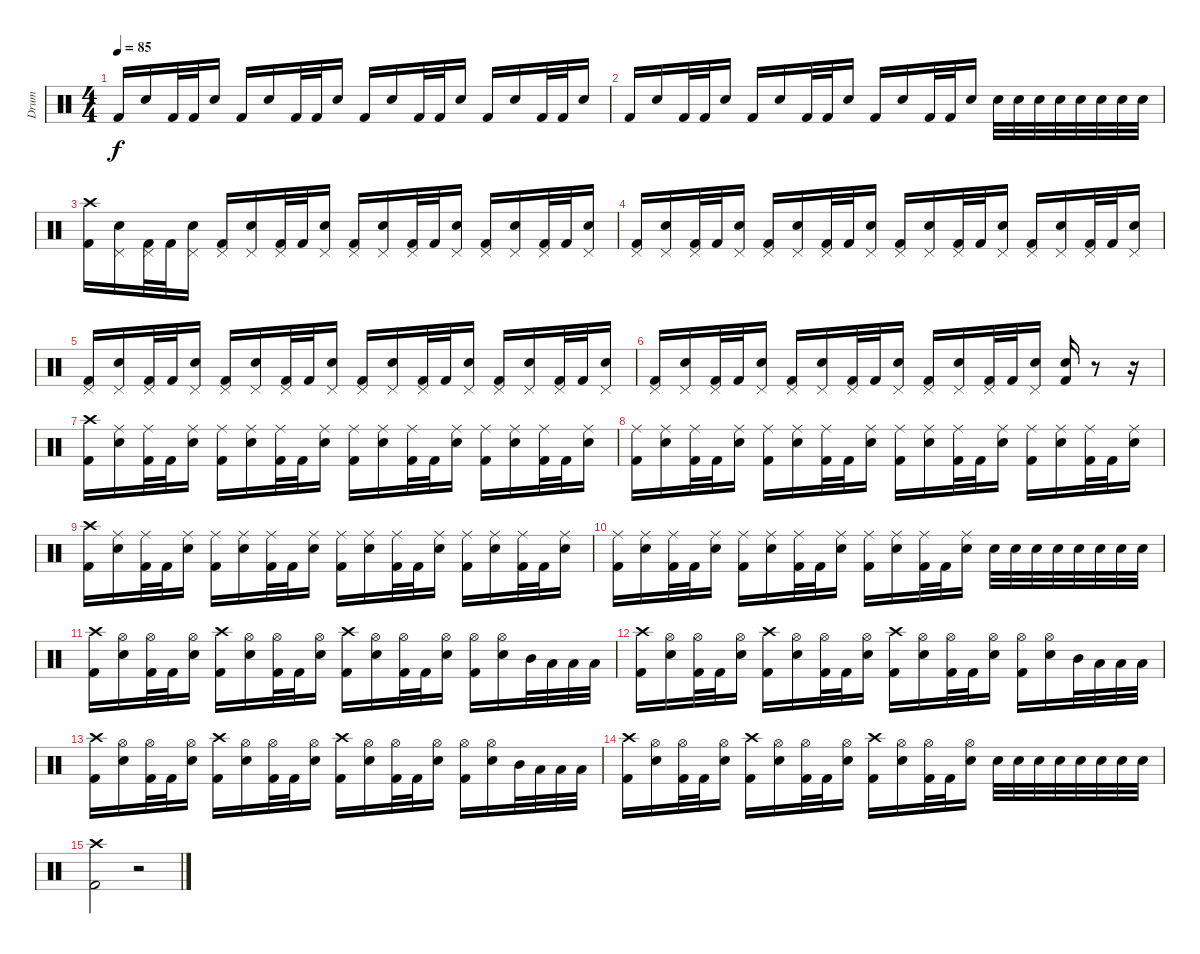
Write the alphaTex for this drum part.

\track ("Drum" "Drum") {instrument percussion}
\staff {score}
\articulation defaults
\ts (4 4)
\tempo 85
\clef neutral
\ks c "Kick (hit) 2".16{dy f} "Electric Snare (hit)".16 "Kick (hit) 2".32 "Kick (hit) 2".32 "Electric Snare (hit)".16 "Kick (hit) 2".16 "Electric Snare (hit)".16 "Kick (hit) 2".32 "Kick (hit) 2".32 "Electric Snare (hit)".16 "Kick (hit) 2".16 "Electric Snare (hit)".16 "Kick (hit) 2".32 "Kick (hit) 2".32 "Electric Snare (hit)".16 "Kick (hit) 2".16 "Electric Snare (hit)".16 "Kick (hit) 2".32 "Kick (hit) 2".32 "Electric Snare (hit)".16
|
"Kick (hit) 2".16 "Electric Snare (hit)".16 "Kick (hit) 2".32 "Kick (hit) 2".32 "Electric Snare (hit)".16 "Kick (hit) 2".16 "Electric Snare (hit)".16 "Kick (hit) 2".32 "Kick (hit) 2".32 "Electric Snare (hit)".16 "Kick (hit) 2".16 "Electric Snare (hit)".16 "Kick (hit) 2".32 "Kick (hit) 2".32 "Electric Snare (hit)".16 "Electric Snare (hit)".32 "Electric Snare (hit)".32 "Electric Snare (hit)".32 "Electric Snare (hit)".32 "Electric Snare (hit)".32 "Electric Snare (hit)".32 "Electric Snare (hit)".32 "Electric Snare (hit)".32 |
("Crash high (hit)" "Kick (hit) 2").16 ("Pedal Hi-Hat (hit)" "Electric Snare (hit)").16 ("Pedal Hi-Hat (hit)" "Kick (hit) 2").32 "Kick (hit) 2".32 ("Pedal Hi-Hat (hit)" "Electric Snare (hit)").16 ("Pedal Hi-Hat (hit)" "Kick (hit) 2").16 ("Pedal Hi-Hat (hit)" "Electric Snare (hit)").16 ("Pedal Hi-Hat (hit)" "Kick (hit) 2").32 "Kick (hit) 2".32 ("Pedal Hi-Hat (hit)" "Electric Snare (hit)").16 ("Pedal Hi-Hat (hit)" "Kick (hit) 2").16 ("Pedal Hi-Hat (hit)" "Electric Snare (hit)").16 ("Pedal Hi-Hat (hit)" "Kick (hit) 2").32 "Kick (hit) 2".32 ("Pedal Hi-Hat (hit)" "Electric Snare (hit)").16 ("Pedal Hi-Hat (hit)" "Kick (hit) 2").16 ("Pedal Hi-Hat (hit)" "Electric Snare (hit)").16 ("Pedal Hi-Hat (hit)" "Kick (hit) 2").32 "Kick (hit) 2".32 ("Pedal Hi-Hat (hit)" "Electric Snare (hit)").16 |
("Pedal Hi-Hat (hit)" "Kick (hit) 2").16 ("Pedal Hi-Hat (hit)" "Electric Snare (hit)").16 ("Pedal Hi-Hat (hit)" "Kick (hit) 2").32 "Kick (hit) 2".32 ("Pedal Hi-Hat (hit)" "Electric Snare (hit)").16 ("Pedal Hi-Hat (hit)" "Kick (hit) 2").16 ("Pedal Hi-Hat (hit)" "Electric Snare (hit)").16 ("Pedal Hi-Hat (hit)" "Kick (hit) 2").32 "Kick (hit) 2".32 ("Pedal Hi-Hat (hit)" "Electric Snare (hit)").16 ("Pedal Hi-Hat (hit)" "Kick (hit) 2").16 ("Pedal Hi-Hat (hit)" "Electric Snare (hit)").16 ("Pedal Hi-Hat (hit)" "Kick (hit) 2").32 "Kick (hit) 2".32 ("Pedal Hi-Hat (hit)" "Electric Snare (hit)").16 ("Pedal Hi-Hat (hit)" "Kick (hit) 2").16 ("Pedal Hi-Hat (hit)" "Electric Snare (hit)").16 ("Pedal Hi-Hat (hit)" "Kick (hit) 2").32 "Kick (hit) 2".32 ("Pedal Hi-Hat (hit)" "Electric Snare (hit)").16 |
("Pedal Hi-Hat (hit)" "Kick (hit) 2").16 ("Pedal Hi-Hat (hit)" "Electric Snare (hit)").16 ("Pedal Hi-Hat (hit)" "Kick (hit) 2").32 "Kick (hit) 2".32 ("Pedal Hi-Hat (hit)" "Electric Snare (hit)").16 ("Pedal Hi-Hat (hit)" "Kick (hit) 2").16 ("Pedal Hi-Hat (hit)" "Electric Snare (hit)").16 ("Pedal Hi-Hat (hit)" "Kick (hit) 2").32 "Kick (hit) 2".32 ("Pedal Hi-Hat (hit)" "Electric Snare (hit)").16 ("Pedal Hi-Hat (hit)" "Kick (hit) 2").16 ("Pedal Hi-Hat (hit)" "Electric Snare (hit)").16 ("Pedal Hi-Hat (hit)" "Kick (hit) 2").32 "Kick (hit) 2".32 ("Pedal Hi-Hat (hit)" "Electric Snare (hit)").16 ("Pedal Hi-Hat (hit)" "Kick (hit) 2").16 ("Pedal Hi-Hat (hit)" "Electric Snare (hit)").16 ("Pedal Hi-Hat (hit)" "Kick (hit) 2").32 "Kick (hit) 2".32 ("Pedal Hi-Hat (hit)" "Electric Snare (hit)").16 |
("Pedal Hi-Hat (hit)" "Kick (hit) 2").16 ("Pedal Hi-Hat (hit)" "Electric Snare (hit)").16 ("Pedal Hi-Hat (hit)" "Kick (hit) 2").32 "Kick (hit) 2".32 ("Pedal Hi-Hat (hit)" "Electric Snare (hit)").16 ("Pedal Hi-Hat (hit)" "Kick (hit) 2").16 ("Pedal Hi-Hat (hit)" "Electric Snare (hit)").16 ("Pedal Hi-Hat (hit)" "Kick (hit) 2").32 "Kick (hit) 2".32 ("Pedal Hi-Hat (hit)" "Electric Snare (hit)").16 ("Pedal Hi-Hat (hit)" "Kick (hit) 2").16 ("Pedal Hi-Hat (hit)" "Electric Snare (hit)").16 ("Pedal Hi-Hat (hit)" "Kick (hit) 2").32 "Kick (hit) 2".32 ("Pedal Hi-Hat (hit)" "Electric Snare (hit)").16 ("Electric Snare (hit)" "Kick (hit) 2").16 r.8 r.16 |
("Crash high (hit)" "Kick (hit) 2").16 ("Ride (middle)" "Electric Snare (hit)").16 ("Ride (middle)" "Kick (hit) 2").32 "Kick (hit) 2".32 ("Ride (middle)" "Electric Snare (hit)").16 ("Ride (middle)" "Kick (hit) 2").16 ("Ride (middle)" "Electric Snare (hit)").16 ("Ride (middle)" "Kick (hit) 2").32 "Kick (hit) 2".32 ("Ride (middle)" "Electric Snare (hit)").16 ("Ride (middle)" "Kick (hit) 2").16 ("Ride (middle)" "Electric Snare (hit)").16 ("Ride (middle)" "Kick (hit) 2").32 "Kick (hit) 2".32 ("Ride (middle)" "Electric Snare (hit)").16 ("Ride (middle)" "Kick (hit) 2").16 ("Ride (middle)" "Electric Snare (hit)").16 ("Ride (middle)" "Kick (hit) 2").32 "Kick (hit) 2".32 ("Ride (middle)" "Electric Snare (hit)").16 |
("Ride (middle)" "Kick (hit) 2").16 ("Ride (middle)" "Electric Snare (hit)").16 ("Ride (middle)" "Kick (hit) 2").32 "Kick (hit) 2".32 ("Ride (middle)" "Electric Snare (hit)").16 ("Ride (middle)" "Kick (hit) 2").16 ("Ride (middle)" "Electric Snare (hit)").16 ("Ride (middle)" "Kick (hit) 2").32 "Kick (hit) 2".32 ("Ride (middle)" "Electric Snare (hit)").16 ("Ride (middle)" "Kick (hit) 2").16 ("Ride (middle)" "Electric Snare (hit)").16 ("Ride (middle)" "Kick (hit) 2").32 "Kick (hit) 2".32 ("Ride (middle)" "Electric Snare (hit)").16 ("Ride (middle)" "Kick (hit) 2").16 ("Ride (middle)" "Electric Snare (hit)").16 ("Ride (middle)" "Kick (hit) 2").32 "Kick (hit) 2".32 ("Ride (middle)" "Electric Snare (hit)").16 |
("Crash high (hit)" "Kick (hit) 2").16 ("Ride (middle)" "Electric Snare (hit)").16 ("Ride (middle)" "Kick (hit) 2").32 "Kick (hit) 2".32 ("Ride (middle)" "Electric Snare (hit)").16 ("Ride (middle)" "Kick (hit) 2").16 ("Ride (middle)" "Electric Snare (hit)").16 ("Ride (middle)" "Kick (hit) 2").32 "Kick (hit) 2".32 ("Ride (middle)" "Electric Snare (hit)").16 ("Ride (middle)" "Kick (hit) 2").16 ("Ride (middle)" "Electric Snare (hit)").16 ("Ride (middle)" "Kick (hit) 2").32 "Kick (hit) 2".32 ("Ride (middle)" "Electric Snare (hit)").16 ("Ride (middle)" "Kick (hit) 2").16 ("Ride (middle)" "Electric Snare (hit)").16 ("Ride (middle)" "Kick (hit) 2").32 "Kick (hit) 2".32 ("Ride (middle)" "Electric Snare (hit)").16 |
("Ride (middle)" "Kick (hit) 2").16 ("Ride (middle)" "Electric Snare (hit)").16 ("Ride (middle)" "Kick (hit) 2").32 "Kick (hit) 2".32 ("Ride (middle)" "Electric Snare (hit)").16 ("Ride (middle)" "Kick (hit) 2").16 ("Ride (middle)" "Electric Snare (hit)").16 ("Ride (middle)" "Kick (hit) 2").32 "Kick (hit) 2".32 ("Ride (middle)" "Electric Snare (hit)").16 ("Ride (middle)" "Kick (hit) 2").16 ("Ride (middle)" "Electric Snare (hit)").16 ("Ride (middle)" "Kick (hit) 2").32 "Kick (hit) 2".32 ("Ride (middle)" "Electric Snare (hit)").16 "Electric Snare (hit)".32 "Electric Snare (hit)".32 "Electric Snare (hit)".32 "Electric Snare (hit)".32 "Electric Snare (hit)".32 "Electric Snare (hit)".32 "Electric Snare (hit)".32 "Electric Snare (hit)".32 |
("Crash high (hit)" "Kick (hit) 2").16 ("Hi-Hat (open)" "Electric Snare (hit)").16 ("Hi-Hat (open)" "Kick (hit) 2").32 "Kick (hit) 2".32 ("Hi-Hat (open)" "Electric Snare (hit)").16 ("Crash high (hit)" "Kick (hit) 2").16 ("Hi-Hat (open)" "Electric Snare (hit)").16 ("Hi-Hat (open)" "Kick (hit) 2").32 "Kick (hit) 2".32 ("Hi-Hat (open)" "Electric Snare (hit)").16 ("Crash high (hit)" "Kick (hit) 2").16 ("Hi-Hat (open)" "Electric Snare (hit)").16 ("Hi-Hat (open)" "Kick (hit) 2").32 "Kick (hit) 2".32 ("Hi-Hat (open)" "Electric Snare (hit)").16 ("Hi-Hat (open)" "Kick (hit) 2").16 ("Hi-Hat (open)" "Electric Snare (hit)").16 "Mid Tom (hit)".32 "Low Tom (hit)".32 "Low Tom (hit)".32 "Low Floor Tom (hit)".32 |
("Crash high (hit)" "Kick (hit) 2").16 ("Hi-Hat (open)" "Electric Snare (hit)").16 ("Hi-Hat (open)" "Kick (hit) 2").32 "Kick (hit) 2".32 ("Hi-Hat (open)" "Electric Snare (hit)").16 ("Crash high (hit)" "Kick (hit) 2").16 ("Hi-Hat (open)" "Electric Snare (hit)").16 ("Hi-Hat (open)" "Kick (hit) 2").32 "Kick (hit) 2".32 ("Hi-Hat (open)" "Electric Snare (hit)").16 ("Crash high (hit)" "Kick (hit) 2").16 ("Hi-Hat (open)" "Electric Snare (hit)").16 ("Hi-Hat (open)" "Kick (hit) 2").32 "Kick (hit) 2".32 ("Hi-Hat (open)" "Electric Snare (hit)").16 ("Hi-Hat (open)" "Kick (hit) 2").16 ("Hi-Hat (open)" "Electric Snare (hit)").16 "Mid Tom (hit)".32 "Low Tom (hit)".32 "Low Tom (hit)".32 "Low Floor Tom (hit)".32 |
("Crash high (hit)" "Kick (hit) 2").16 ("Hi-Hat (open)" "Electric Snare (hit)").16 ("Hi-Hat (open)" "Kick (hit) 2").32 "Kick (hit) 2".32 ("Hi-Hat (open)" "Electric Snare (hit)").16 ("Crash high (hit)" "Kick (hit) 2").16 ("Hi-Hat (open)" "Electric Snare (hit)").16 ("Hi-Hat (open)" "Kick (hit) 2").32 "Kick (hit) 2".32 ("Hi-Hat (open)" "Electric Snare (hit)").16 ("Crash high (hit)" "Kick (hit) 2").16 ("Hi-Hat (open)" "Electric Snare (hit)").16 ("Hi-Hat (open)" "Kick (hit) 2").32 "Kick (hit) 2".32 ("Hi-Hat (open)" "Electric Snare (hit)").16 ("Hi-Hat (open)" "Kick (hit) 2").16 ("Hi-Hat (open)" "Electric Snare (hit)").16 "Mid Tom (hit)".32 "Low Tom (hit)".32 "Low Tom (hit)".32 "Low Floor Tom (hit)".32 |
("Crash high (hit)" "Kick (hit) 2").16 ("Hi-Hat (open)" "Electric Snare (hit)").16 ("Hi-Hat (open)" "Kick (hit) 2").32 "Kick (hit) 2".32 ("Hi-Hat (open)" "Electric Snare (hit)").16 ("Crash high (hit)" "Kick (hit) 2").16 ("Hi-Hat (open)" "Electric Snare (hit)").16 ("Hi-Hat (open)" "Kick (hit) 2").32 "Kick (hit) 2".32 ("Hi-Hat (open)" "Electric Snare (hit)").16 ("Crash high (hit)" "Kick (hit) 2").16 ("Hi-Hat (open)" "Electric Snare (hit)").16 ("Hi-Hat (open)" "Kick (hit) 2").32 "Kick (hit) 2".32 ("Hi-Hat (open)" "Electric Snare (hit)").16 "Electric Snare (hit)".32 "Electric Snare (hit)".32 "Electric Snare (hit)".32 "Electric Snare (hit)".32 "Electric Snare (hit)".32 "Electric Snare (hit)".32 "Electric Snare (hit)".32 "Electric Snare (hit)".32 |
("Crash high (hit)" "Kick (hit) 2").2 r.2
